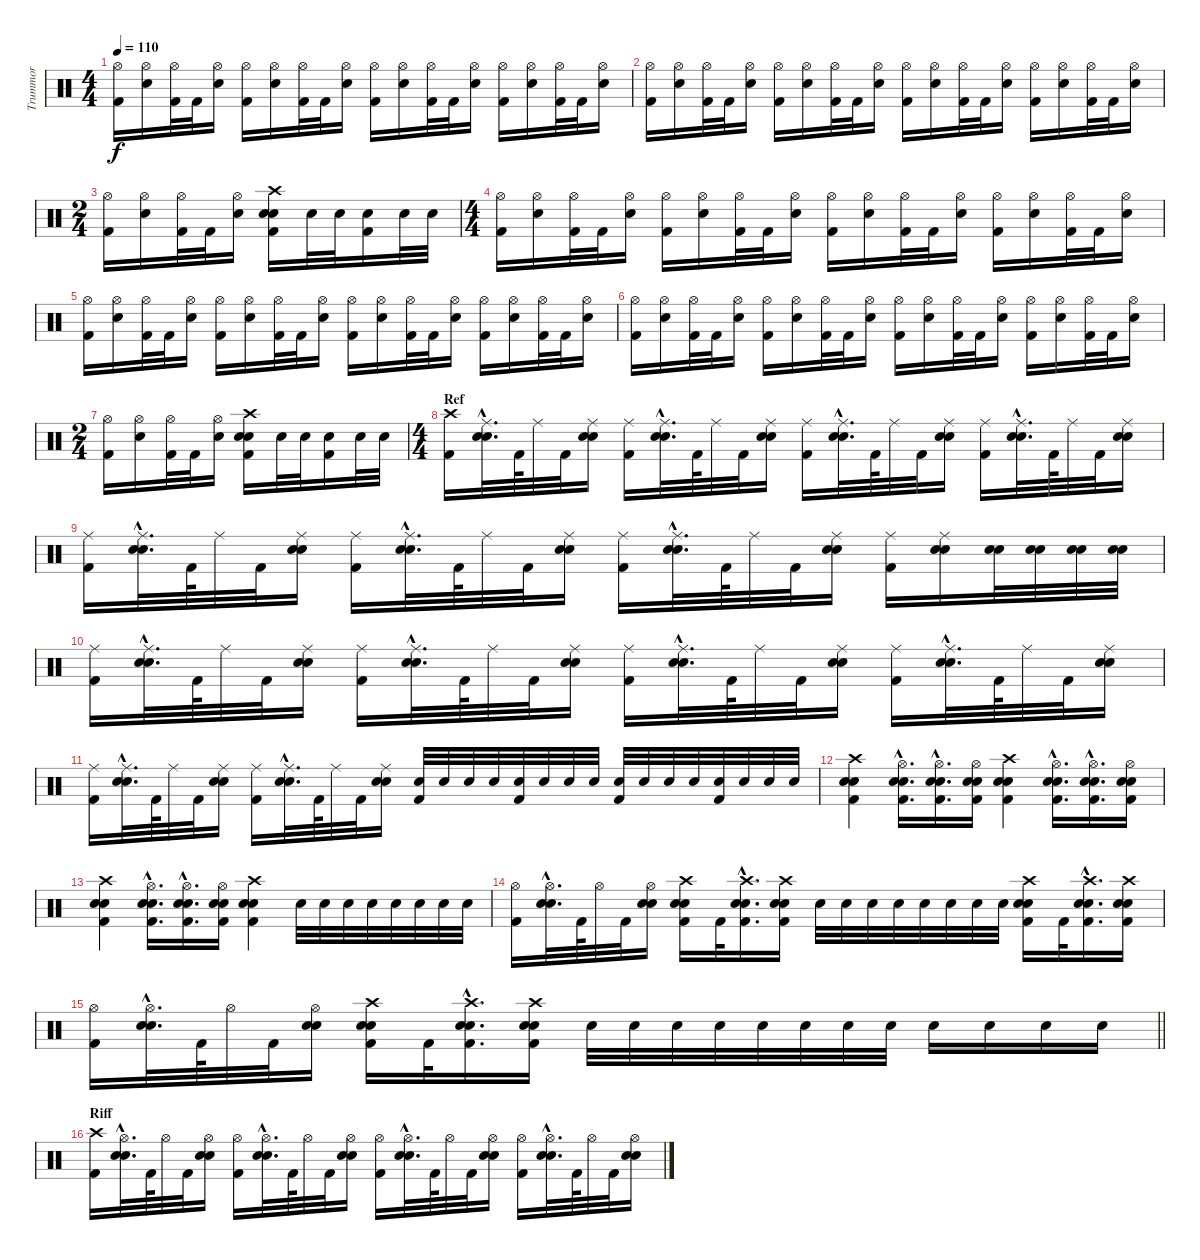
\track ("Trummor" "Trummor") {instrument percussion}
\staff {score}
\articulation defaults
\ts (4 4)
\tempo 110
\clef neutral
\ks c
("Hi-Hat (open)" "Kick (hit) 2").16{dy f} ("Hi-Hat (open)" "Electric Snare (hit)").16 ("Hi-Hat (open)" "Kick (hit) 2").32 "Kick (hit) 2".32 ("Hi-Hat (open)" "Electric Snare (hit)").16 ("Hi-Hat (open)" "Kick (hit) 2").16 ("Hi-Hat (open)" "Electric Snare (hit)").16 ("Hi-Hat (open)" "Kick (hit) 2").32 "Kick (hit) 2".32 ("Hi-Hat (open)" "Electric Snare (hit)").16 ("Hi-Hat (open)" "Kick (hit) 2").16 ("Hi-Hat (open)" "Electric Snare (hit)").16 ("Hi-Hat (open)" "Kick (hit) 2").32 "Kick (hit) 2".32 ("Hi-Hat (open)" "Electric Snare (hit)").16 ("Hi-Hat (open)" "Kick (hit) 2").16 ("Hi-Hat (open)" "Electric Snare (hit)").16 ("Hi-Hat (open)" "Kick (hit) 2").32 "Kick (hit) 2".32 ("Hi-Hat (open)" "Electric Snare (hit)").16 |
("Hi-Hat (open)" "Kick (hit) 2").16 ("Hi-Hat (open)" "Electric Snare (hit)").16 ("Hi-Hat (open)" "Kick (hit) 2").32 "Kick (hit) 2".32 ("Hi-Hat (open)" "Electric Snare (hit)").16 ("Hi-Hat (open)" "Kick (hit) 2").16 ("Hi-Hat (open)" "Electric Snare (hit)").16 ("Hi-Hat (open)" "Kick (hit) 2").32 "Kick (hit) 2".32 ("Hi-Hat (open)" "Electric Snare (hit)").16 ("Hi-Hat (open)" "Kick (hit) 2").16 ("Hi-Hat (open)" "Electric Snare (hit)").16 ("Hi-Hat (open)" "Kick (hit) 2").32 "Kick (hit) 2".32 ("Hi-Hat (open)" "Electric Snare (hit)").16 ("Hi-Hat (open)" "Kick (hit) 2").16 ("Hi-Hat (open)" "Electric Snare (hit)").16 ("Hi-Hat (open)" "Kick (hit) 2").32 "Kick (hit) 2".32 ("Hi-Hat (open)" "Electric Snare (hit)").16 |
\ts (2 4)
("Hi-Hat (open)" "Kick (hit) 2").16 ("Hi-Hat (open)" "Electric Snare (hit)").16 ("Hi-Hat (open)" "Kick (hit) 2").32 "Kick (hit) 2".32 ("Hi-Hat (open)" "Electric Snare (hit)").16 ("Crash high (hit)" "Electric Snare (hit)" "Electric Snare (hit)" "Kick (hit) 2").16 "Electric Snare (hit)".32 "Electric Snare (hit)".32 ("Electric Snare (hit)" "Kick (hit) 2").16 "Electric Snare (hit)".32 "Electric Snare (hit)".32 |
\ts (4 4)
("Hi-Hat (open)" "Kick (hit) 2").16 ("Hi-Hat (open)" "Electric Snare (hit)").16 ("Hi-Hat (open)" "Kick (hit) 2").32 "Kick (hit) 2".32 ("Hi-Hat (open)" "Electric Snare (hit)").16 ("Hi-Hat (open)" "Kick (hit) 2").16 ("Hi-Hat (open)" "Electric Snare (hit)").16 ("Hi-Hat (open)" "Kick (hit) 2").32 "Kick (hit) 2".32 ("Hi-Hat (open)" "Electric Snare (hit)").16 ("Hi-Hat (open)" "Kick (hit) 2").16 ("Hi-Hat (open)" "Electric Snare (hit)").16 ("Hi-Hat (open)" "Kick (hit) 2").32 "Kick (hit) 2".32 ("Hi-Hat (open)" "Electric Snare (hit)").16 ("Hi-Hat (open)" "Kick (hit) 2").16 ("Hi-Hat (open)" "Electric Snare (hit)").16 ("Hi-Hat (open)" "Kick (hit) 2").32 "Kick (hit) 2".32 ("Hi-Hat (open)" "Electric Snare (hit)").16 |
("Hi-Hat (open)" "Kick (hit) 2").16 ("Hi-Hat (open)" "Electric Snare (hit)").16 ("Hi-Hat (open)" "Kick (hit) 2").32 "Kick (hit) 2".32 ("Hi-Hat (open)" "Electric Snare (hit)").16 ("Hi-Hat (open)" "Kick (hit) 2").16 ("Hi-Hat (open)" "Electric Snare (hit)").16 ("Hi-Hat (open)" "Kick (hit) 2").32 "Kick (hit) 2".32 ("Hi-Hat (open)" "Electric Snare (hit)").16 ("Hi-Hat (open)" "Kick (hit) 2").16 ("Hi-Hat (open)" "Electric Snare (hit)").16 ("Hi-Hat (open)" "Kick (hit) 2").32 "Kick (hit) 2".32 ("Hi-Hat (open)" "Electric Snare (hit)").16 ("Hi-Hat (open)" "Kick (hit) 2").16 ("Hi-Hat (open)" "Electric Snare (hit)").16 ("Hi-Hat (open)" "Kick (hit) 2").32 "Kick (hit) 2".32 ("Hi-Hat (open)" "Electric Snare (hit)").16 |
("Hi-Hat (open)" "Kick (hit) 2").16 ("Hi-Hat (open)" "Electric Snare (hit)").16 ("Hi-Hat (open)" "Kick (hit) 2").32 "Kick (hit) 2".32 ("Hi-Hat (open)" "Electric Snare (hit)").16 ("Hi-Hat (open)" "Kick (hit) 2").16 ("Hi-Hat (open)" "Electric Snare (hit)").16 ("Hi-Hat (open)" "Kick (hit) 2").32 "Kick (hit) 2".32 ("Hi-Hat (open)" "Electric Snare (hit)").16 ("Hi-Hat (open)" "Kick (hit) 2").16 ("Hi-Hat (open)" "Electric Snare (hit)").16 ("Hi-Hat (open)" "Kick (hit) 2").32 "Kick (hit) 2".32 ("Hi-Hat (open)" "Electric Snare (hit)").16 ("Hi-Hat (open)" "Kick (hit) 2").16 ("Hi-Hat (open)" "Electric Snare (hit)").16 ("Hi-Hat (open)" "Kick (hit) 2").32 "Kick (hit) 2".32 ("Hi-Hat (open)" "Electric Snare (hit)").16 |
\ts (2 4)
("Hi-Hat (open)" "Kick (hit) 2").16 ("Hi-Hat (open)" "Electric Snare (hit)").16 ("Hi-Hat (open)" "Kick (hit) 2").32 "Kick (hit) 2".32 ("Hi-Hat (open)" "Electric Snare (hit)").16 ("Crash high (hit)" "Electric Snare (hit)" "Electric Snare (hit)" "Kick (hit) 2").16 "Electric Snare (hit)".32 "Electric Snare (hit)".32 ("Electric Snare (hit)" "Kick (hit) 2").16 "Electric Snare (hit)".32 "Electric Snare (hit)".32 |
\ts (4 4)
\section ("" "Ref")
("Crash high (hit)" "Kick (hit) 2").16 ("Ride (middle)"{hac} "Electric Snare (hit)"{hac} "Electric Snare (hit)"{hac}).32{d} "Kick (hit) 2".64 "Ride (middle)".32 "Kick (hit) 2".32 ("Ride (middle)" "Electric Snare (hit)" "Electric Snare (hit)").16 ("Ride (middle)" "Kick (hit) 2").16 ("Ride (middle)"{hac} "Electric Snare (hit)"{hac} "Electric Snare (hit)"{hac}).32{d} "Kick (hit) 2".64 "Ride (middle)".32 "Kick (hit) 2".32 ("Ride (middle)" "Electric Snare (hit)" "Electric Snare (hit)").16 ("Ride (middle)" "Kick (hit) 2").16 ("Ride (middle)"{hac} "Electric Snare (hit)"{hac} "Electric Snare (hit)"{hac}).32{d} "Kick (hit) 2".64 "Ride (middle)".32 "Kick (hit) 2".32 ("Ride (middle)" "Electric Snare (hit)" "Electric Snare (hit)").16 ("Ride (middle)" "Kick (hit) 2").16 ("Ride (middle)"{hac} "Electric Snare (hit)"{hac} "Electric Snare (hit)"{hac}).32{d} "Kick (hit) 2".64 "Ride (middle)".32 "Kick (hit) 2".32 ("Ride (middle)" "Electric Snare (hit)" "Electric Snare (hit)").16 |
("Ride (middle)" "Kick (hit) 2").16 ("Ride (middle)"{hac} "Electric Snare (hit)"{hac} "Electric Snare (hit)"{hac}).32{d} "Kick (hit) 2".64 "Ride (middle)".32 "Kick (hit) 2".32 ("Ride (middle)" "Electric Snare (hit)" "Electric Snare (hit)").16 ("Ride (middle)" "Kick (hit) 2").16 ("Ride (middle)"{hac} "Electric Snare (hit)"{hac} "Electric Snare (hit)"{hac}).32{d} "Kick (hit) 2".64 "Ride (middle)".32 "Kick (hit) 2".32 ("Ride (middle)" "Electric Snare (hit)" "Electric Snare (hit)").16 ("Ride (middle)" "Kick (hit) 2").16 ("Ride (middle)"{hac} "Electric Snare (hit)"{hac} "Electric Snare (hit)"{hac}).32{d} "Kick (hit) 2".64 "Ride (middle)".32 "Kick (hit) 2".32 ("Ride (middle)" "Electric Snare (hit)" "Electric Snare (hit)").16 ("Ride (middle)" "Kick (hit) 2").16 ("Ride (middle)" "Electric Snare (hit)" "Electric Snare (hit)").16 ("Electric Snare (hit)" "Electric Snare (hit)").32 ("Electric Snare (hit)" "Electric Snare (hit)").32 ("Electric Snare (hit)" "Electric Snare (hit)").32 ("Electric Snare (hit)" "Electric Snare (hit)").32 |
("Ride (middle)" "Kick (hit) 2").16 ("Ride (middle)"{hac} "Electric Snare (hit)"{hac} "Electric Snare (hit)"{hac}).32{d} "Kick (hit) 2".64 "Ride (middle)".32 "Kick (hit) 2".32 ("Ride (middle)" "Electric Snare (hit)" "Electric Snare (hit)").16 ("Ride (middle)" "Kick (hit) 2").16 ("Ride (middle)"{hac} "Electric Snare (hit)"{hac} "Electric Snare (hit)"{hac}).32{d} "Kick (hit) 2".64 "Ride (middle)".32 "Kick (hit) 2".32 ("Ride (middle)" "Electric Snare (hit)" "Electric Snare (hit)").16 ("Ride (middle)" "Kick (hit) 2").16 ("Ride (middle)"{hac} "Electric Snare (hit)"{hac} "Electric Snare (hit)"{hac}).32{d} "Kick (hit) 2".64 "Ride (middle)".32 "Kick (hit) 2".32 ("Ride (middle)" "Electric Snare (hit)" "Electric Snare (hit)").16 ("Ride (middle)" "Kick (hit) 2").16 ("Ride (middle)"{hac} "Electric Snare (hit)"{hac} "Electric Snare (hit)"{hac}).32{d} "Kick (hit) 2".64 "Ride (middle)".32 "Kick (hit) 2".32 ("Ride (middle)" "Electric Snare (hit)" "Electric Snare (hit)").16 |
("Ride (middle)" "Kick (hit) 2").16 ("Ride (middle)"{hac} "Electric Snare (hit)"{hac} "Electric Snare (hit)"{hac}).32{d} "Kick (hit) 2".64 "Ride (middle)".32 "Kick (hit) 2".32 ("Ride (middle)" "Electric Snare (hit)" "Electric Snare (hit)").16 ("Ride (middle)" "Kick (hit) 2").16 ("Ride (middle)"{hac} "Electric Snare (hit)"{hac} "Electric Snare (hit)"{hac}).32{d} "Kick (hit) 2".64 "Ride (middle)".32 "Kick (hit) 2".32 ("Ride (middle)" "Electric Snare (hit)" "Electric Snare (hit)").16 ("Electric Snare (hit)" "Kick (hit) 2").32 "Electric Snare (hit)".32 "Electric Snare (hit)".32 "Electric Snare (hit)".32 ("Electric Snare (hit)" "Kick (hit) 2").32 "Electric Snare (hit)".32 "Electric Snare (hit)".32 "Electric Snare (hit)".32 ("Electric Snare (hit)" "Kick (hit) 2").32 "Electric Snare (hit)".32 "Electric Snare (hit)".32 "Electric Snare (hit)".32 ("Electric Snare (hit)" "Kick (hit) 2").32 "Electric Snare (hit)".32 "Electric Snare (hit)".32 "Electric Snare (hit)".32 |
("Crash high (hit)" "Electric Snare (hit)" "Electric Snare (hit)" "Kick (hit) 2").4 ("Hi-Hat (open)"{hac} "Electric Snare (hit)"{hac} "Electric Snare (hit)"{hac} "Kick (hit) 2"{hac}).16{d} ("Hi-Hat (open)"{hac} "Electric Snare (hit)"{hac} "Electric Snare (hit)"{hac} "Kick (hit) 2"{hac}).16{d} ("Hi-Hat (open)" "Electric Snare (hit)" "Electric Snare (hit)" "Kick (hit) 2").16 ("Crash high (hit)" "Electric Snare (hit)" "Electric Snare (hit)" "Kick (hit) 2").4 ("Hi-Hat (open)"{hac} "Electric Snare (hit)"{hac} "Electric Snare (hit)"{hac} "Kick (hit) 2"{hac}).16{d} ("Hi-Hat (open)"{hac} "Electric Snare (hit)"{hac} "Electric Snare (hit)"{hac} "Kick (hit) 2"{hac}).16{d} ("Hi-Hat (open)" "Electric Snare (hit)" "Electric Snare (hit)" "Kick (hit) 2").16 |
("Crash high (hit)" "Electric Snare (hit)" "Electric Snare (hit)" "Kick (hit) 2").4 ("Hi-Hat (open)"{hac} "Electric Snare (hit)"{hac} "Electric Snare (hit)"{hac} "Kick (hit) 2"{hac}).16{d} ("Hi-Hat (open)"{hac} "Electric Snare (hit)"{hac} "Electric Snare (hit)"{hac} "Kick (hit) 2"{hac}).16{d} ("Hi-Hat (open)" "Electric Snare (hit)" "Electric Snare (hit)" "Kick (hit) 2").16 ("Crash high (hit)" "Electric Snare (hit)" "Electric Snare (hit)" "Kick (hit) 2").4 "Electric Snare (hit)".32 "Electric Snare (hit)".32 "Electric Snare (hit)".32 "Electric Snare (hit)".32 "Electric Snare (hit)".32 "Electric Snare (hit)".32 "Electric Snare (hit)".32 "Electric Snare (hit)".32 |
("Hi-Hat (open)" "Kick (hit) 2").16 ("Hi-Hat (open)"{hac} "Electric Snare (hit)"{hac} "Electric Snare (hit)"{hac}).32{d} "Kick (hit) 2".64 "Hi-Hat (open)".32 "Kick (hit) 2".32 ("Hi-Hat (open)" "Electric Snare (hit)" "Electric Snare (hit)").16 ("Crash high (hit)" "Electric Snare (hit)" "Electric Snare (hit)" "Kick (hit) 2").16 "Kick (hit) 2".32 ("Crash high (hit)"{hac} "Electric Snare (hit)"{hac} "Electric Snare (hit)"{hac} "Kick (hit) 2"{hac}).16{d} ("Crash high (hit)" "Electric Snare (hit)" "Electric Snare (hit)" "Kick (hit) 2").16 "Electric Snare (hit)".32 "Electric Snare (hit)".32 "Electric Snare (hit)".32 "Electric Snare (hit)".32 "Electric Snare (hit)".32 "Electric Snare (hit)".32 "Electric Snare (hit)".32 "Electric Snare (hit)".32 ("Crash high (hit)" "Electric Snare (hit)" "Electric Snare (hit)" "Kick (hit) 2").16 "Kick (hit) 2".32 ("Crash high (hit)"{hac} "Electric Snare (hit)"{hac} "Electric Snare (hit)"{hac} "Kick (hit) 2"{hac}).16{d} ("Crash high (hit)" "Electric Snare (hit)" "Electric Snare (hit)" "Kick (hit) 2").16 |
\barLineRight lightlight
("Hi-Hat (open)" "Kick (hit) 2").16 ("Hi-Hat (open)"{hac} "Electric Snare (hit)"{hac} "Electric Snare (hit)"{hac}).32{d} "Kick (hit) 2".64 "Hi-Hat (open)".32 "Kick (hit) 2".32 ("Hi-Hat (open)" "Electric Snare (hit)" "Electric Snare (hit)").16 ("Crash high (hit)" "Electric Snare (hit)" "Electric Snare (hit)" "Kick (hit) 2").16 "Kick (hit) 2".32 ("Crash high (hit)"{hac} "Electric Snare (hit)"{hac} "Electric Snare (hit)"{hac} "Kick (hit) 2"{hac}).16{d} ("Crash high (hit)" "Electric Snare (hit)" "Electric Snare (hit)" "Kick (hit) 2").16 "Electric Snare (hit)".32 "Electric Snare (hit)".32 "Electric Snare (hit)".32 "Electric Snare (hit)".32 "Electric Snare (hit)".32 "Electric Snare (hit)".32 "Electric Snare (hit)".32 "Electric Snare (hit)".32 "Electric Snare (hit)".16 "Electric Snare (hit)".16 "Electric Snare (hit)".16 "Electric Snare (hit)".16 |
\section ("" "Riff")
("Crash high (hit)" "Kick (hit) 2").16 ("Hi-Hat (open)"{hac} "Electric Snare (hit)"{hac} "Electric Snare (hit)"{hac}).32{d} "Kick (hit) 2".64 "Hi-Hat (open)".32 "Kick (hit) 2".32 ("Hi-Hat (open)" "Electric Snare (hit)" "Electric Snare (hit)").16 ("Hi-Hat (open)" "Kick (hit) 2").16 ("Hi-Hat (open)"{hac} "Electric Snare (hit)"{hac} "Electric Snare (hit)"{hac}).32{d} "Kick (hit) 2".64 "Hi-Hat (open)".32 "Kick (hit) 2".32 ("Hi-Hat (open)" "Electric Snare (hit)" "Electric Snare (hit)").16 ("Hi-Hat (open)" "Kick (hit) 2").16 ("Hi-Hat (open)"{hac} "Electric Snare (hit)"{hac} "Electric Snare (hit)"{hac}).32{d} "Kick (hit) 2".64 "Hi-Hat (open)".32 "Kick (hit) 2".32 ("Hi-Hat (open)" "Electric Snare (hit)" "Electric Snare (hit)").16 ("Hi-Hat (open)" "Kick (hit) 2").16 ("Hi-Hat (open)"{hac} "Electric Snare (hit)"{hac} "Electric Snare (hit)"{hac}).32{d} "Kick (hit) 2".64 "Hi-Hat (open)".32 "Kick (hit) 2".32 ("Hi-Hat (open)" "Electric Snare (hit)" "Electric Snare (hit)").16
